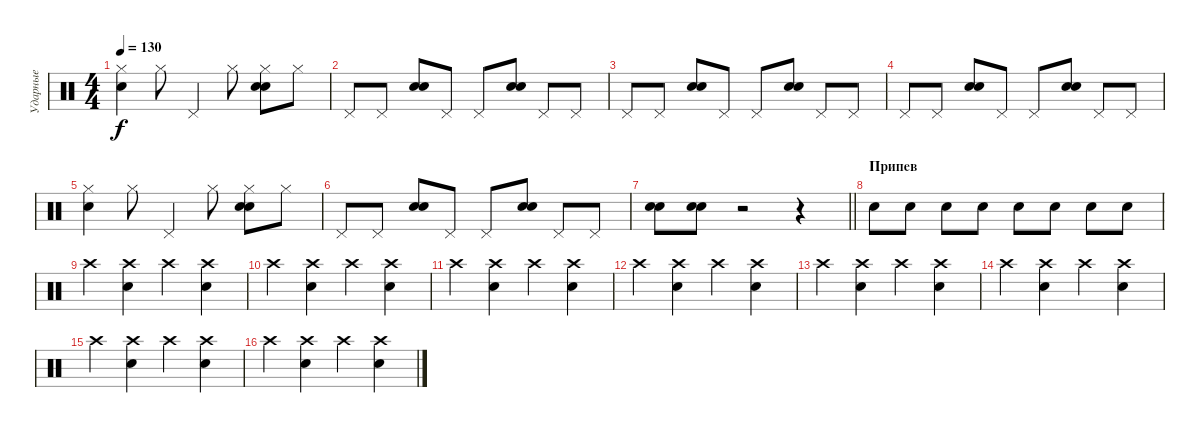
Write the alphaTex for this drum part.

\track ("Ударные" "Ударные") {instrument percussion}
\staff {score}
\articulation defaults
\ts (4 4)
\tempo 130
\clef neutral
\ks c
("Snare (hit) 2" "Hi-Hat (closed)").4{dy f} "Hi-Hat (closed)".8 "Pedal Hi-Hat (hit)".4 "Hi-Hat (closed)".8 ("Electric Snare (hit)" "Hi-Hat (closed)" "Snare (hit) 2").8 "Hi-Hat (closed)".8 |
"Pedal Hi-Hat (hit)".8 "Pedal Hi-Hat (hit)".8 ("Electric Snare (hit)" "Snare (hit) 2").8 "Pedal Hi-Hat (hit)".8 "Pedal Hi-Hat (hit)".8 ("Snare (hit) 2" "Electric Snare (hit)").8 "Pedal Hi-Hat (hit)".8 "Pedal Hi-Hat (hit)".8 |
"Pedal Hi-Hat (hit)".8 "Pedal Hi-Hat (hit)".8 ("Electric Snare (hit)" "Snare (hit) 2").8 "Pedal Hi-Hat (hit)".8 "Pedal Hi-Hat (hit)".8 ("Snare (hit) 2" "Electric Snare (hit)").8 "Pedal Hi-Hat (hit)".8 "Pedal Hi-Hat (hit)".8 |
"Pedal Hi-Hat (hit)".8 "Pedal Hi-Hat (hit)".8 ("Electric Snare (hit)" "Snare (hit) 2").8 "Pedal Hi-Hat (hit)".8 "Pedal Hi-Hat (hit)".8 ("Snare (hit) 2" "Electric Snare (hit)").8 "Pedal Hi-Hat (hit)".8 "Pedal Hi-Hat (hit)".8 |
("Snare (hit) 2" "Hi-Hat (closed)").4 "Hi-Hat (closed)".8 "Pedal Hi-Hat (hit)".4 "Hi-Hat (closed)".8 ("Electric Snare (hit)" "Hi-Hat (closed)" "Snare (hit) 2").8 "Hi-Hat (closed)".8 |
"Pedal Hi-Hat (hit)".8 "Pedal Hi-Hat (hit)".8 ("Electric Snare (hit)" "Snare (hit) 2").8 "Pedal Hi-Hat (hit)".8 "Pedal Hi-Hat (hit)".8 ("Snare (hit) 2" "Electric Snare (hit)").8 "Pedal Hi-Hat (hit)".8 "Pedal Hi-Hat (hit)".8 |
\barLineRight lightlight
("Snare (hit) 2" "Electric Snare (hit)").8 ("Snare (hit) 2" "Electric Snare (hit)").8 r.2 r.4 |
\section ("" "Припев")
"Electric Snare (hit)".8 "Electric Snare (hit)".8 "Electric Snare (hit)".8 "Electric Snare (hit)".8 "Electric Snare (hit)".8 "Electric Snare (hit)".8 "Electric Snare (hit)".8 "Electric Snare (hit)".8 |
"Crash high (hit)".4 ("Snare (hit) 2" "Crash high (hit)").4 "Crash high (hit)".4 ("Snare (hit) 2" "Crash high (hit)").4 |
"Crash high (hit)".4 ("Snare (hit) 2" "Crash high (hit)").4 "Crash high (hit)".4 ("Snare (hit) 2" "Crash high (hit)").4 |
"Crash high (hit)".4 ("Snare (hit) 2" "Crash high (hit)").4 "Crash high (hit)".4 ("Snare (hit) 2" "Crash high (hit)").4 |
"Crash high (hit)".4 ("Snare (hit) 2" "Crash high (hit)").4 "Crash high (hit)".4 ("Snare (hit) 2" "Crash high (hit)").4 |
"Crash high (hit)".4 ("Snare (hit) 2" "Crash high (hit)").4 "Crash high (hit)".4 ("Snare (hit) 2" "Crash high (hit)").4 |
"Crash high (hit)".4 ("Snare (hit) 2" "Crash high (hit)").4 "Crash high (hit)".4 ("Snare (hit) 2" "Crash high (hit)").4 |
"Crash high (hit)".4 ("Snare (hit) 2" "Crash high (hit)").4 "Crash high (hit)".4 ("Snare (hit) 2" "Crash high (hit)").4 |
"Crash high (hit)".4 ("Snare (hit) 2" "Crash high (hit)").4 "Crash high (hit)".4 ("Snare (hit) 2" "Crash high (hit)").4
